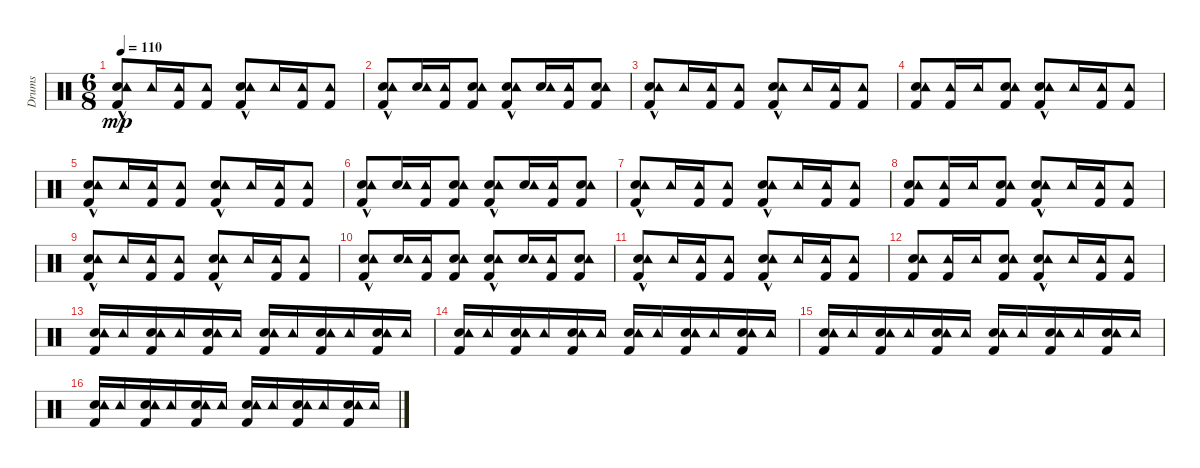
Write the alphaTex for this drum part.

\track ("Drums" "Drums") {instrument percussion}
\staff {score}
\articulation defaults
\ts (6 8)
\tempo 110
\clef neutral
\ks c
("Hand Clap (hit)" "Tambourine (hit)" "Kick (hit) 2"{hac}).8{dy mp} "Tambourine (hit)".16 ("Tambourine (hit)" "Kick (hit) 2").16 ("Tambourine (hit)" "Kick (hit) 2").8 ("Hand Clap (hit)" "Tambourine (hit)" "Kick (hit) 2"{hac}).8 "Tambourine (hit)".16 ("Tambourine (hit)" "Kick (hit) 2").16 ("Tambourine (hit)" "Kick (hit) 2").8 |
("Hand Clap (hit)" "Tambourine (hit)" "Kick (hit) 2"{hac}).8 ("Hand Clap (hit)" "Tambourine (hit)").16 ("Tambourine (hit)" "Kick (hit) 2").16 ("Hand Clap (hit)" "Tambourine (hit)" "Kick (hit) 2").8 ("Hand Clap (hit)" "Tambourine (hit)" "Kick (hit) 2"{hac}).8 ("Hand Clap (hit)" "Tambourine (hit)").16 ("Tambourine (hit)" "Kick (hit) 2").16 ("Hand Clap (hit)" "Tambourine (hit)" "Kick (hit) 2").8 |
("Hand Clap (hit)" "Tambourine (hit)" "Kick (hit) 2"{hac}).8 "Tambourine (hit)".16 ("Tambourine (hit)" "Kick (hit) 2").16 ("Tambourine (hit)" "Kick (hit) 2").8 ("Hand Clap (hit)" "Tambourine (hit)" "Kick (hit) 2"{hac}).8 "Tambourine (hit)".16 ("Tambourine (hit)" "Kick (hit) 2").16 ("Tambourine (hit)" "Kick (hit) 2").8 |
("Hand Clap (hit)" "Tambourine (hit)" "Kick (hit) 2").8 ("Tambourine (hit)" "Kick (hit) 2").16 "Tambourine (hit)".16 ("Hand Clap (hit)" "Tambourine (hit)" "Kick (hit) 2").8 ("Hand Clap (hit)" "Tambourine (hit)" "Kick (hit) 2"{hac}).8 "Tambourine (hit)".16 ("Tambourine (hit)" "Kick (hit) 2").16 ("Tambourine (hit)" "Kick (hit) 2").8 |
("Hand Clap (hit)" "Tambourine (hit)" "Kick (hit) 2"{hac}).8 "Tambourine (hit)".16 ("Tambourine (hit)" "Kick (hit) 2").16 ("Tambourine (hit)" "Kick (hit) 2").8 ("Hand Clap (hit)" "Tambourine (hit)" "Kick (hit) 2"{hac}).8 "Tambourine (hit)".16 ("Tambourine (hit)" "Kick (hit) 2").16 ("Tambourine (hit)" "Kick (hit) 2").8 |
("Hand Clap (hit)" "Tambourine (hit)" "Kick (hit) 2"{hac}).8 ("Hand Clap (hit)" "Tambourine (hit)").16 ("Tambourine (hit)" "Kick (hit) 2").16 ("Hand Clap (hit)" "Tambourine (hit)" "Kick (hit) 2").8 ("Hand Clap (hit)" "Tambourine (hit)" "Kick (hit) 2"{hac}).8 ("Hand Clap (hit)" "Tambourine (hit)").16 ("Tambourine (hit)" "Kick (hit) 2").16 ("Hand Clap (hit)" "Tambourine (hit)" "Kick (hit) 2").8 |
("Hand Clap (hit)" "Tambourine (hit)" "Kick (hit) 2"{hac}).8 "Tambourine (hit)".16 ("Tambourine (hit)" "Kick (hit) 2").16 ("Tambourine (hit)" "Kick (hit) 2").8 ("Hand Clap (hit)" "Tambourine (hit)" "Kick (hit) 2"{hac}).8 "Tambourine (hit)".16 ("Tambourine (hit)" "Kick (hit) 2").16 ("Tambourine (hit)" "Kick (hit) 2").8 |
("Hand Clap (hit)" "Tambourine (hit)" "Kick (hit) 2").8 ("Tambourine (hit)" "Kick (hit) 2").16 "Tambourine (hit)".16 ("Hand Clap (hit)" "Tambourine (hit)" "Kick (hit) 2").8 ("Hand Clap (hit)" "Tambourine (hit)" "Kick (hit) 2"{hac}).8 "Tambourine (hit)".16 ("Tambourine (hit)" "Kick (hit) 2").16 ("Tambourine (hit)" "Kick (hit) 2").8 |
("Hand Clap (hit)" "Tambourine (hit)" "Kick (hit) 2"{hac}).8 "Tambourine (hit)".16 ("Tambourine (hit)" "Kick (hit) 2").16 ("Tambourine (hit)" "Kick (hit) 2").8 ("Hand Clap (hit)" "Tambourine (hit)" "Kick (hit) 2"{hac}).8 "Tambourine (hit)".16 ("Tambourine (hit)" "Kick (hit) 2").16 ("Tambourine (hit)" "Kick (hit) 2").8 |
("Hand Clap (hit)" "Tambourine (hit)" "Kick (hit) 2"{hac}).8 ("Hand Clap (hit)" "Tambourine (hit)").16 ("Tambourine (hit)" "Kick (hit) 2").16 ("Hand Clap (hit)" "Tambourine (hit)" "Kick (hit) 2").8 ("Hand Clap (hit)" "Tambourine (hit)" "Kick (hit) 2"{hac}).8 ("Hand Clap (hit)" "Tambourine (hit)").16 ("Tambourine (hit)" "Kick (hit) 2").16 ("Hand Clap (hit)" "Tambourine (hit)" "Kick (hit) 2").8 |
("Hand Clap (hit)" "Tambourine (hit)" "Kick (hit) 2"{hac}).8 "Tambourine (hit)".16 ("Tambourine (hit)" "Kick (hit) 2").16 ("Tambourine (hit)" "Kick (hit) 2").8 ("Hand Clap (hit)" "Tambourine (hit)" "Kick (hit) 2"{hac}).8 "Tambourine (hit)".16 ("Tambourine (hit)" "Kick (hit) 2").16 ("Tambourine (hit)" "Kick (hit) 2").8 |
("Hand Clap (hit)" "Tambourine (hit)" "Kick (hit) 2").8 ("Tambourine (hit)" "Kick (hit) 2").16 "Tambourine (hit)".16 ("Hand Clap (hit)" "Tambourine (hit)" "Kick (hit) 2").8 ("Hand Clap (hit)" "Tambourine (hit)" "Kick (hit) 2"{hac}).8 "Tambourine (hit)".16 ("Tambourine (hit)" "Kick (hit) 2").16 ("Tambourine (hit)" "Kick (hit) 2").8 |
("Hand Clap (hit)" "Tambourine (hit)" "Kick (hit) 2").16 "Tambourine (hit)".16 ("Hand Clap (hit)" "Tambourine (hit)" "Kick (hit) 2").16 "Tambourine (hit)".16 ("Hand Clap (hit)" "Tambourine (hit)" "Kick (hit) 2").16 "Tambourine (hit)".16 ("Hand Clap (hit)" "Tambourine (hit)" "Kick (hit) 2").16 "Tambourine (hit)".16 ("Hand Clap (hit)" "Tambourine (hit)" "Kick (hit) 2").16 "Tambourine (hit)".16 ("Hand Clap (hit)" "Tambourine (hit)" "Kick (hit) 2").16 "Tambourine (hit)".16 |
("Hand Clap (hit)" "Tambourine (hit)" "Kick (hit) 2").16 "Tambourine (hit)".16 ("Hand Clap (hit)" "Tambourine (hit)" "Kick (hit) 2").16 "Tambourine (hit)".16 ("Hand Clap (hit)" "Tambourine (hit)" "Kick (hit) 2").16 "Tambourine (hit)".16 ("Hand Clap (hit)" "Tambourine (hit)" "Kick (hit) 2").16 "Tambourine (hit)".16 ("Hand Clap (hit)" "Tambourine (hit)" "Kick (hit) 2").16 "Tambourine (hit)".16 ("Hand Clap (hit)" "Tambourine (hit)" "Kick (hit) 2").16 "Tambourine (hit)".16 |
("Hand Clap (hit)" "Tambourine (hit)" "Kick (hit) 2").16 "Tambourine (hit)".16 ("Hand Clap (hit)" "Tambourine (hit)" "Kick (hit) 2").16 "Tambourine (hit)".16 ("Hand Clap (hit)" "Tambourine (hit)" "Kick (hit) 2").16 "Tambourine (hit)".16 ("Hand Clap (hit)" "Tambourine (hit)" "Kick (hit) 2").16 "Tambourine (hit)".16 ("Hand Clap (hit)" "Tambourine (hit)" "Kick (hit) 2").16 "Tambourine (hit)".16 ("Hand Clap (hit)" "Tambourine (hit)" "Kick (hit) 2").16 "Tambourine (hit)".16 |
("Hand Clap (hit)" "Tambourine (hit)" "Kick (hit) 2").16 "Tambourine (hit)".16 ("Hand Clap (hit)" "Tambourine (hit)" "Kick (hit) 2").16 "Tambourine (hit)".16 ("Hand Clap (hit)" "Tambourine (hit)" "Kick (hit) 2").16 "Tambourine (hit)".16 ("Hand Clap (hit)" "Tambourine (hit)" "Kick (hit) 2").16 "Tambourine (hit)".16 ("Hand Clap (hit)" "Tambourine (hit)" "Kick (hit) 2").16 "Tambourine (hit)".16 ("Hand Clap (hit)" "Tambourine (hit)" "Kick (hit) 2").16 "Tambourine (hit)".16
